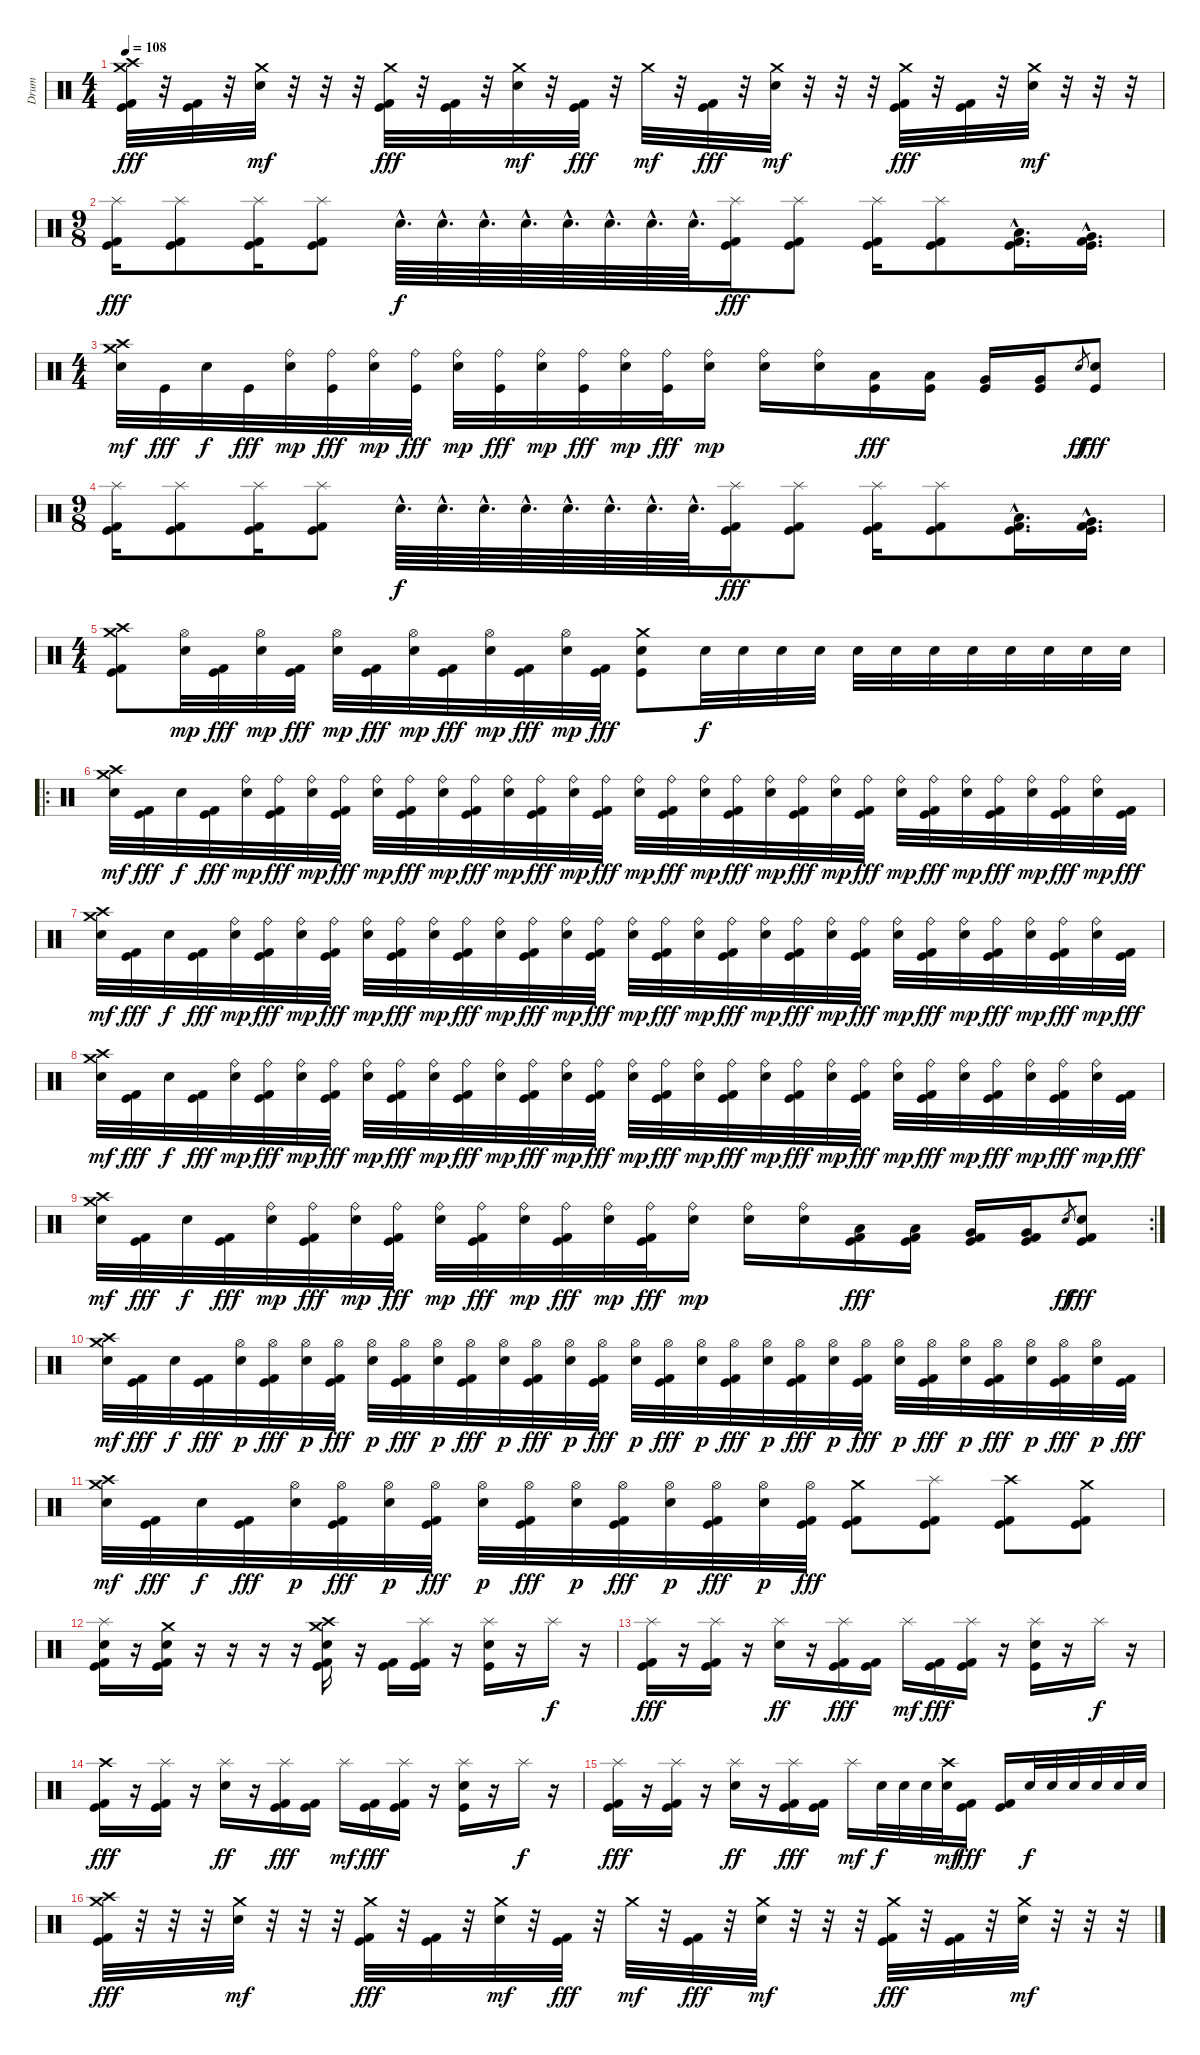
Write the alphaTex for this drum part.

\track ("Drum" "Drum") {instrument percussion}
\staff {score}
\articulation defaults
\ts (4 4)
\tempo 108
\clef neutral
\ks c
("Crash medium (hit)" "Crash high (hit)" "Kick (hit) 2" "Kick (hit)").32{dy fff} r.32 ("Kick (hit) 2" "Kick (hit)").32 r.32 ("Crash medium (hit)" "Electric Snare (hit)").32{dy mf} r.32 r.32 r.32 ("Crash medium (hit)" "Kick (hit) 2" "Kick (hit)").32{dy fff} r.32 ("Kick (hit) 2" "Kick (hit)").32 r.32 ("Crash medium (hit)" "Electric Snare (hit)").32{dy mf} r.32 ("Kick (hit) 2" "Kick (hit)").32{dy fff} r.32 "Crash medium (hit)".32{dy mf} r.32 ("Kick (hit) 2" "Kick (hit)").32{dy fff} r.32 ("Crash medium (hit)" "Electric Snare (hit)").32{dy mf} r.32 r.32 r.32 ("Crash medium (hit)" "Kick (hit) 2" "Kick (hit)").32{dy fff} r.32 ("Kick (hit) 2" "Kick (hit)").32 r.32 ("Crash medium (hit)" "Electric Snare (hit)").32{dy mf} r.32 r.32 r.32 |
\ts (9 8)
("Splash (hit)" "Kick (hit) 2" "Kick (hit)").16{dy fff} ("Splash (hit)" "Kick (hit) 2" "Kick (hit)").8 ("Splash (hit)" "Kick (hit) 2" "Kick (hit)").16 ("Splash (hit)" "Kick (hit) 2" "Kick (hit)").8 "Electric Snare (hit)"{hac}.64{d dy f} "Electric Snare (hit)"{hac}.64{d} "Electric Snare (hit)"{hac}.64{d} "Electric Snare (hit)"{hac}.64{d} "Electric Snare (hit)"{hac}.64{d} "Electric Snare (hit)"{hac}.64{d} "Electric Snare (hit)"{hac}.64{d} "Electric Snare (hit)"{hac}.64{d} ("Splash (hit)" "Kick (hit) 2" "Kick (hit)").16{dy fff} ("Splash (hit)" "Kick (hit) 2" "Kick (hit)").8 ("Splash (hit)" "Kick (hit) 2" "Kick (hit)").16 ("Splash (hit)" "Kick (hit) 2" "Kick (hit)").8 ("Low Floor Tom (hit)"{hac} "Kick (hit) 2"{hac} "Kick (hit)"{hac}).16{d} ("Very Low Tom (hit)"{hac} "Kick (hit) 2"{hac} "Kick (hit)"{hac}).16{d} |
\ts (4 4)
("Crash medium (hit)" "Crash high (hit)" "Electric Snare (hit)").32{dy mf} "Kick (hit)".32{dy fff} "Electric Snare (hit)".32{dy f} "Kick (hit)".32{dy fff} ("Ride (bell)" "Electric Snare (hit)").32{dy mp} ("Ride (bell)" "Kick (hit)").32{dy fff} ("Ride (bell)" "Electric Snare (hit)").32{dy mp} ("Ride (bell)" "Kick (hit)").32{dy fff} ("Ride (bell)" "Electric Snare (hit)").32{dy mp} ("Ride (bell)" "Kick (hit)").32{dy fff} ("Ride (bell)" "Electric Snare (hit)").32{dy mp} ("Ride (bell)" "Kick (hit)").32{dy fff} ("Ride (bell)" "Electric Snare (hit)").32{dy mp} ("Ride (bell)" "Kick (hit)").32{dy fff} ("Ride (bell)" "Electric Snare (hit)").16{dy mp} ("Ride (bell)" "Electric Snare (hit)").16 ("Ride (bell)" "Electric Snare (hit)").16 ("Low Floor Tom (hit)" "Kick (hit)").16{dy fff} ("Low Floor Tom (hit)" "Kick (hit)").16 ("Very Low Tom (hit)" "Kick (hit)").16 ("Very Low Tom (hit)" "Kick (hit)").16 "Electric Snare (hit)".8{gr dy ff} ("Electric Snare (hit)" "Kick (hit)").8{dy fff} |
\ts (9 8)
("Splash (hit)" "Kick (hit) 2" "Kick (hit)").16 ("Splash (hit)" "Kick (hit) 2" "Kick (hit)").8 ("Splash (hit)" "Kick (hit) 2" "Kick (hit)").16 ("Splash (hit)" "Kick (hit) 2" "Kick (hit)").8 "Electric Snare (hit)"{hac}.64{d dy f} "Electric Snare (hit)"{hac}.64{d} "Electric Snare (hit)"{hac}.64{d} "Electric Snare (hit)"{hac}.64{d} "Electric Snare (hit)"{hac}.64{d} "Electric Snare (hit)"{hac}.64{d} "Electric Snare (hit)"{hac}.64{d} "Electric Snare (hit)"{hac}.64{d} ("Splash (hit)" "Kick (hit) 2" "Kick (hit)").16{dy fff} ("Splash (hit)" "Kick (hit) 2" "Kick (hit)").8 ("Splash (hit)" "Kick (hit) 2" "Kick (hit)").16 ("Splash (hit)" "Kick (hit) 2" "Kick (hit)").8 ("Low Floor Tom (hit)"{hac} "Kick (hit) 2"{hac} "Kick (hit)"{hac}).16{d} ("Very Low Tom (hit)"{hac} "Kick (hit) 2"{hac} "Kick (hit)"{hac}).16{d} |
\ts (4 4)
("Crash medium (hit)" "Crash high (hit)" "Kick (hit) 2" "Kick (hit)").8 ("Hi-Hat (open)" "Electric Snare (hit)").32{dy mp} ("Kick (hit) 2" "Kick (hit)").32{dy fff} ("Hi-Hat (open)" "Electric Snare (hit)").32{dy mp} ("Kick (hit) 2" "Kick (hit)").32{dy fff} ("Hi-Hat (open)" "Electric Snare (hit)").32{dy mp} ("Kick (hit) 2" "Kick (hit)").32{dy fff} ("Hi-Hat (open)" "Electric Snare (hit)").32{dy mp} ("Kick (hit) 2" "Kick (hit)").32{dy fff} ("Hi-Hat (open)" "Electric Snare (hit)").32{dy mp} ("Kick (hit) 2" "Kick (hit)").32{dy fff} ("Hi-Hat (open)" "Electric Snare (hit)").32{dy mp} ("Kick (hit) 2" "Kick (hit)").32{dy fff} ("Crash medium (hit)" "Electric Snare (hit)" "Kick (hit)").8 "Electric Snare (hit)".32{dy f} "Electric Snare (hit)".32 "Electric Snare (hit)".32 "Electric Snare (hit)".32 "Electric Snare (hit)".32 "Electric Snare (hit)".32 "Electric Snare (hit)".32 "Electric Snare (hit)".32 "Electric Snare (hit)".32 "Electric Snare (hit)".32 "Electric Snare (hit)".32 "Electric Snare (hit)".32 |
\ro
("Crash medium (hit)" "Crash high (hit)" "Electric Snare (hit)").32{dy mf} ("Kick (hit) 2" "Kick (hit)").32{dy fff} "Electric Snare (hit)".32{dy f} ("Kick (hit) 2" "Kick (hit)").32{dy fff} ("Ride (bell)" "Electric Snare (hit)").32{dy mp} ("Ride (bell)" "Kick (hit) 2" "Kick (hit)").32{dy fff} ("Ride (bell)" "Electric Snare (hit)").32{dy mp} ("Ride (bell)" "Kick (hit) 2" "Kick (hit)").32{dy fff} ("Ride (bell)" "Electric Snare (hit)").32{dy mp} ("Ride (bell)" "Kick (hit) 2" "Kick (hit)").32{dy fff} ("Ride (bell)" "Electric Snare (hit)").32{dy mp} ("Ride (bell)" "Kick (hit) 2" "Kick (hit)").32{dy fff} ("Ride (bell)" "Electric Snare (hit)").32{dy mp} ("Ride (bell)" "Kick (hit) 2" "Kick (hit)").32{dy fff} ("Ride (bell)" "Electric Snare (hit)").32{dy mp} ("Ride (bell)" "Kick (hit) 2" "Kick (hit)").32{dy fff} ("Ride (bell)" "Electric Snare (hit)").32{dy mp} ("Ride (bell)" "Kick (hit) 2" "Kick (hit)").32{dy fff} ("Ride (bell)" "Electric Snare (hit)").32{dy mp} ("Ride (bell)" "Kick (hit) 2" "Kick (hit)").32{dy fff} ("Ride (bell)" "Electric Snare (hit)").32{dy mp} ("Ride (bell)" "Kick (hit) 2" "Kick (hit)").32{dy fff} ("Ride (bell)" "Electric Snare (hit)").32{dy mp} ("Ride (bell)" "Kick (hit) 2" "Kick (hit)").32{dy fff} ("Ride (bell)" "Electric Snare (hit)").32{dy mp} ("Ride (bell)" "Kick (hit) 2" "Kick (hit)").32{dy fff} ("Ride (bell)" "Electric Snare (hit)").32{dy mp} ("Ride (bell)" "Kick (hit) 2" "Kick (hit)").32{dy fff} ("Ride (bell)" "Electric Snare (hit)").32{dy mp} ("Ride (bell)" "Kick (hit) 2" "Kick (hit)").32{dy fff} ("Ride (bell)" "Electric Snare (hit)").32{dy mp} ("Kick (hit) 2" "Kick (hit)").32{dy fff} |
("Crash medium (hit)" "Crash high (hit)" "Electric Snare (hit)").32{dy mf} ("Kick (hit) 2" "Kick (hit)").32{dy fff} "Electric Snare (hit)".32{dy f} ("Kick (hit) 2" "Kick (hit)").32{dy fff} ("Ride (bell)" "Electric Snare (hit)").32{dy mp} ("Ride (bell)" "Kick (hit) 2" "Kick (hit)").32{dy fff} ("Ride (bell)" "Electric Snare (hit)").32{dy mp} ("Ride (bell)" "Kick (hit) 2" "Kick (hit)").32{dy fff} ("Ride (bell)" "Electric Snare (hit)").32{dy mp} ("Ride (bell)" "Kick (hit) 2" "Kick (hit)").32{dy fff} ("Ride (bell)" "Electric Snare (hit)").32{dy mp} ("Ride (bell)" "Kick (hit) 2" "Kick (hit)").32{dy fff} ("Ride (bell)" "Electric Snare (hit)").32{dy mp} ("Ride (bell)" "Kick (hit) 2" "Kick (hit)").32{dy fff} ("Ride (bell)" "Electric Snare (hit)").32{dy mp} ("Ride (bell)" "Kick (hit) 2" "Kick (hit)").32{dy fff} ("Ride (bell)" "Electric Snare (hit)").32{dy mp} ("Ride (bell)" "Kick (hit) 2" "Kick (hit)").32{dy fff} ("Ride (bell)" "Electric Snare (hit)").32{dy mp} ("Ride (bell)" "Kick (hit) 2" "Kick (hit)").32{dy fff} ("Ride (bell)" "Electric Snare (hit)").32{dy mp} ("Ride (bell)" "Kick (hit) 2" "Kick (hit)").32{dy fff} ("Ride (bell)" "Electric Snare (hit)").32{dy mp} ("Ride (bell)" "Kick (hit) 2" "Kick (hit)").32{dy fff} ("Ride (bell)" "Electric Snare (hit)").32{dy mp} ("Ride (bell)" "Kick (hit) 2" "Kick (hit)").32{dy fff} ("Ride (bell)" "Electric Snare (hit)").32{dy mp} ("Ride (bell)" "Kick (hit) 2" "Kick (hit)").32{dy fff} ("Ride (bell)" "Electric Snare (hit)").32{dy mp} ("Ride (bell)" "Kick (hit) 2" "Kick (hit)").32{dy fff} ("Ride (bell)" "Electric Snare (hit)").32{dy mp} ("Kick (hit) 2" "Kick (hit)").32{dy fff} |
("Crash medium (hit)" "Crash high (hit)" "Electric Snare (hit)").32{dy mf} ("Kick (hit) 2" "Kick (hit)").32{dy fff} "Electric Snare (hit)".32{dy f} ("Kick (hit) 2" "Kick (hit)").32{dy fff} ("Ride (bell)" "Electric Snare (hit)").32{dy mp} ("Ride (bell)" "Kick (hit) 2" "Kick (hit)").32{dy fff} ("Ride (bell)" "Electric Snare (hit)").32{dy mp} ("Ride (bell)" "Kick (hit) 2" "Kick (hit)").32{dy fff} ("Ride (bell)" "Electric Snare (hit)").32{dy mp} ("Ride (bell)" "Kick (hit) 2" "Kick (hit)").32{dy fff} ("Ride (bell)" "Electric Snare (hit)").32{dy mp} ("Ride (bell)" "Kick (hit) 2" "Kick (hit)").32{dy fff} ("Ride (bell)" "Electric Snare (hit)").32{dy mp} ("Ride (bell)" "Kick (hit) 2" "Kick (hit)").32{dy fff} ("Ride (bell)" "Electric Snare (hit)").32{dy mp} ("Ride (bell)" "Kick (hit) 2" "Kick (hit)").32{dy fff} ("Ride (bell)" "Electric Snare (hit)").32{dy mp} ("Ride (bell)" "Kick (hit) 2" "Kick (hit)").32{dy fff} ("Ride (bell)" "Electric Snare (hit)").32{dy mp} ("Ride (bell)" "Kick (hit) 2" "Kick (hit)").32{dy fff} ("Ride (bell)" "Electric Snare (hit)").32{dy mp} ("Ride (bell)" "Kick (hit) 2" "Kick (hit)").32{dy fff} ("Ride (bell)" "Electric Snare (hit)").32{dy mp} ("Ride (bell)" "Kick (hit) 2" "Kick (hit)").32{dy fff} ("Ride (bell)" "Electric Snare (hit)").32{dy mp} ("Ride (bell)" "Kick (hit) 2" "Kick (hit)").32{dy fff} ("Ride (bell)" "Electric Snare (hit)").32{dy mp} ("Ride (bell)" "Kick (hit) 2" "Kick (hit)").32{dy fff} ("Ride (bell)" "Electric Snare (hit)").32{dy mp} ("Ride (bell)" "Kick (hit) 2" "Kick (hit)").32{dy fff} ("Ride (bell)" "Electric Snare (hit)").32{dy mp} ("Kick (hit) 2" "Kick (hit)").32{dy fff} |
\rc 2
("Crash medium (hit)" "Crash high (hit)" "Electric Snare (hit)").32{dy mf} ("Kick (hit) 2" "Kick (hit)").32{dy fff} "Electric Snare (hit)".32{dy f} ("Kick (hit) 2" "Kick (hit)").32{dy fff} ("Ride (bell)" "Electric Snare (hit)").32{dy mp} ("Ride (bell)" "Kick (hit) 2" "Kick (hit)").32{dy fff} ("Ride (bell)" "Electric Snare (hit)").32{dy mp} ("Ride (bell)" "Kick (hit) 2" "Kick (hit)").32{dy fff} ("Ride (bell)" "Electric Snare (hit)").32{dy mp} ("Ride (bell)" "Kick (hit) 2" "Kick (hit)").32{dy fff} ("Ride (bell)" "Electric Snare (hit)").32{dy mp} ("Ride (bell)" "Kick (hit) 2" "Kick (hit)").32{dy fff} ("Ride (bell)" "Electric Snare (hit)").32{dy mp} ("Ride (bell)" "Kick (hit) 2" "Kick (hit)").32{dy fff} ("Ride (bell)" "Electric Snare (hit)").16{dy mp} ("Ride (bell)" "Electric Snare (hit)").16 ("Ride (bell)" "Electric Snare (hit)").16 ("Low Floor Tom (hit)" "Kick (hit) 2" "Kick (hit)").16{dy fff} ("Low Floor Tom (hit)" "Kick (hit) 2" "Kick (hit)").16 ("Very Low Tom (hit)" "Kick (hit) 2" "Kick (hit)").16 ("Very Low Tom (hit)" "Kick (hit) 2" "Kick (hit)").16 "Electric Snare (hit)".8{gr dy ff} ("Electric Snare (hit)" "Kick (hit) 2" "Kick (hit)").8{dy fff} |
("Crash medium (hit)" "Crash high (hit)" "Electric Snare (hit)").32{dy mf} ("Kick (hit) 2" "Kick (hit)").32{dy fff} "Electric Snare (hit)".32{dy f} ("Kick (hit) 2" "Kick (hit)").32{dy fff} ("Hi-Hat (open)" "Electric Snare (hit)").32{dy p} ("Hi-Hat (open)" "Kick (hit) 2" "Kick (hit)").32{dy fff} ("Hi-Hat (open)" "Electric Snare (hit)").32{dy p} ("Hi-Hat (open)" "Kick (hit) 2" "Kick (hit)").32{dy fff} ("Hi-Hat (open)" "Electric Snare (hit)").32{dy p} ("Hi-Hat (open)" "Kick (hit) 2" "Kick (hit)").32{dy fff} ("Hi-Hat (open)" "Electric Snare (hit)").32{dy p} ("Hi-Hat (open)" "Kick (hit) 2" "Kick (hit)").32{dy fff} ("Hi-Hat (open)" "Electric Snare (hit)").32{dy p} ("Hi-Hat (open)" "Kick (hit) 2" "Kick (hit)").32{dy fff} ("Hi-Hat (open)" "Electric Snare (hit)").32{dy p} ("Hi-Hat (open)" "Kick (hit) 2" "Kick (hit)").32{dy fff} ("Hi-Hat (open)" "Electric Snare (hit)").32{dy p} ("Hi-Hat (open)" "Kick (hit) 2" "Kick (hit)").32{dy fff} ("Hi-Hat (open)" "Electric Snare (hit)").32{dy p} ("Hi-Hat (open)" "Kick (hit) 2" "Kick (hit)").32{dy fff} ("Hi-Hat (open)" "Electric Snare (hit)").32{dy p} ("Hi-Hat (open)" "Kick (hit) 2" "Kick (hit)").32{dy fff} ("Hi-Hat (open)" "Electric Snare (hit)").32{dy p} ("Hi-Hat (open)" "Kick (hit) 2" "Kick (hit)").32{dy fff} ("Hi-Hat (open)" "Electric Snare (hit)").32{dy p} ("Hi-Hat (open)" "Kick (hit) 2" "Kick (hit)").32{dy fff} ("Hi-Hat (open)" "Electric Snare (hit)").32{dy p} ("Hi-Hat (open)" "Kick (hit) 2" "Kick (hit)").32{dy fff} ("Hi-Hat (open)" "Electric Snare (hit)").32{dy p} ("Hi-Hat (open)" "Kick (hit) 2" "Kick (hit)").32{dy fff} ("Hi-Hat (open)" "Electric Snare (hit)").32{dy p} ("Kick (hit) 2" "Kick (hit)").32{dy fff} |
("Crash medium (hit)" "Crash high (hit)" "Electric Snare (hit)").32{dy mf} ("Kick (hit) 2" "Kick (hit)").32{dy fff} "Electric Snare (hit)".32{dy f} ("Kick (hit) 2" "Kick (hit)").32{dy fff} ("Hi-Hat (open)" "Electric Snare (hit)").32{dy p} ("Hi-Hat (open)" "Kick (hit) 2" "Kick (hit)").32{dy fff} ("Hi-Hat (open)" "Electric Snare (hit)").32{dy p} ("Hi-Hat (open)" "Kick (hit) 2" "Kick (hit)").32{dy fff} ("Hi-Hat (open)" "Electric Snare (hit)").32{dy p} ("Hi-Hat (open)" "Kick (hit) 2" "Kick (hit)").32{dy fff} ("Hi-Hat (open)" "Electric Snare (hit)").32{dy p} ("Hi-Hat (open)" "Kick (hit) 2" "Kick (hit)").32{dy fff} ("Hi-Hat (open)" "Electric Snare (hit)").32{dy p} ("Hi-Hat (open)" "Kick (hit) 2" "Kick (hit)").32{dy fff} ("Hi-Hat (open)" "Electric Snare (hit)").32{dy p} ("Hi-Hat (open)" "Kick (hit) 2" "Kick (hit)").32{dy fff} ("Crash medium (hit)" "Kick (hit) 2" "Kick (hit)").8 ("Splash (hit)" "Kick (hit) 2" "Kick (hit)").8 ("Crash high (hit)" "Kick (hit) 2" "Kick (hit)").8 ("Crash medium (hit)" "Kick (hit) 2" "Kick (hit)").8 |
("Splash (hit)" "Electric Snare (hit)" "Kick (hit) 2" "Kick (hit)").16 r.16 ("Crash medium (hit)" "Electric Snare (hit)" "Kick (hit) 2" "Kick (hit)").16 r.16 r.16 r.16 r.16 ("Crash high (hit)" "Crash medium (hit)" "Electric Snare (hit)" "Kick (hit) 2" "Kick (hit)").16 r.16 ("Kick (hit) 2" "Kick (hit)").16 ("Splash (hit)" "Kick (hit) 2" "Kick (hit)").16 r.16 ("Splash (hit)" "Electric Snare (hit)" "Kick (hit)").16 r.16 "Splash (hit)".16{dy f} r.16 |
("Splash (hit)" "Kick (hit) 2" "Kick (hit)").16{dy fff} r.16 ("Splash (hit)" "Kick (hit) 2" "Kick (hit)").16 r.16 ("Splash (hit)" "Electric Snare (hit)").16{dy ff} r.16 ("Splash (hit)" "Kick (hit) 2" "Kick (hit)").16{dy fff} ("Kick (hit) 2" "Kick (hit)").16 "Splash (hit)".16{dy mf} ("Kick (hit) 2" "Kick (hit)").16{dy fff} ("Splash (hit)" "Kick (hit) 2" "Kick (hit)").16 r.16 ("Splash (hit)" "Electric Snare (hit)" "Kick (hit)").16 r.16 "Splash (hit)".16{dy f} r.16 |
("Crash high (hit)" "Kick (hit) 2" "Kick (hit)").16{dy fff} r.16 ("Splash (hit)" "Kick (hit) 2" "Kick (hit)").16 r.16 ("Splash (hit)" "Electric Snare (hit)").16{dy ff} r.16 ("Splash (hit)" "Kick (hit) 2" "Kick (hit)").16{dy fff} ("Kick (hit) 2" "Kick (hit)").16 "Splash (hit)".16{dy mf} ("Kick (hit) 2" "Kick (hit)").16{dy fff} ("Splash (hit)" "Kick (hit) 2" "Kick (hit)").16 r.16 ("Splash (hit)" "Electric Snare (hit)" "Kick (hit)").16 r.16 "Splash (hit)".16{dy f} r.16 |
("Splash (hit)" "Kick (hit) 2" "Kick (hit)").16{dy fff} r.16 ("Splash (hit)" "Kick (hit) 2" "Kick (hit)").16 r.16 ("Splash (hit)" "Electric Snare (hit)").16{dy ff} r.16 ("Splash (hit)" "Kick (hit) 2" "Kick (hit)").16{dy fff} ("Kick (hit) 2" "Kick (hit)").16 "Splash (hit)".16{dy mf} "Electric Snare (hit)".32{dy f} "Electric Snare (hit)".32 "Electric Snare (hit)".32 ("Crash high (hit)" "Electric Snare (hit)").32{dy mf} ("Kick (hit) 2" "Kick (hit)").16{dy fff} ("Kick (hit) 2" "Kick (hit)").16 "Electric Snare (hit)".32{dy f} "Electric Snare (hit)".32 "Electric Snare (hit)".32 "Electric Snare (hit)".32 "Electric Snare (hit)".32 "Electric Snare (hit)".32 |
("Crash medium (hit)" "Crash high (hit)" "Kick (hit) 2" "Kick (hit)").32{dy fff} r.32 r.32 r.32 ("Crash medium (hit)" "Electric Snare (hit)").32{dy mf} r.32 r.32 r.32 ("Crash medium (hit)" "Kick (hit) 2" "Kick (hit)").32{dy fff} r.32 ("Kick (hit) 2" "Kick (hit)").32 r.32 ("Crash medium (hit)" "Electric Snare (hit)").32{dy mf} r.32 ("Kick (hit) 2" "Kick (hit)").32{dy fff} r.32 "Crash medium (hit)".32{dy mf} r.32 ("Kick (hit) 2" "Kick (hit)").32{dy fff} r.32 ("Crash medium (hit)" "Electric Snare (hit)").32{dy mf} r.32 r.32 r.32 ("Crash medium (hit)" "Kick (hit) 2" "Kick (hit)").32{dy fff} r.32 ("Kick (hit) 2" "Kick (hit)").32 r.32 ("Crash medium (hit)" "Electric Snare (hit)").32{dy mf} r.32 r.32 r.32
